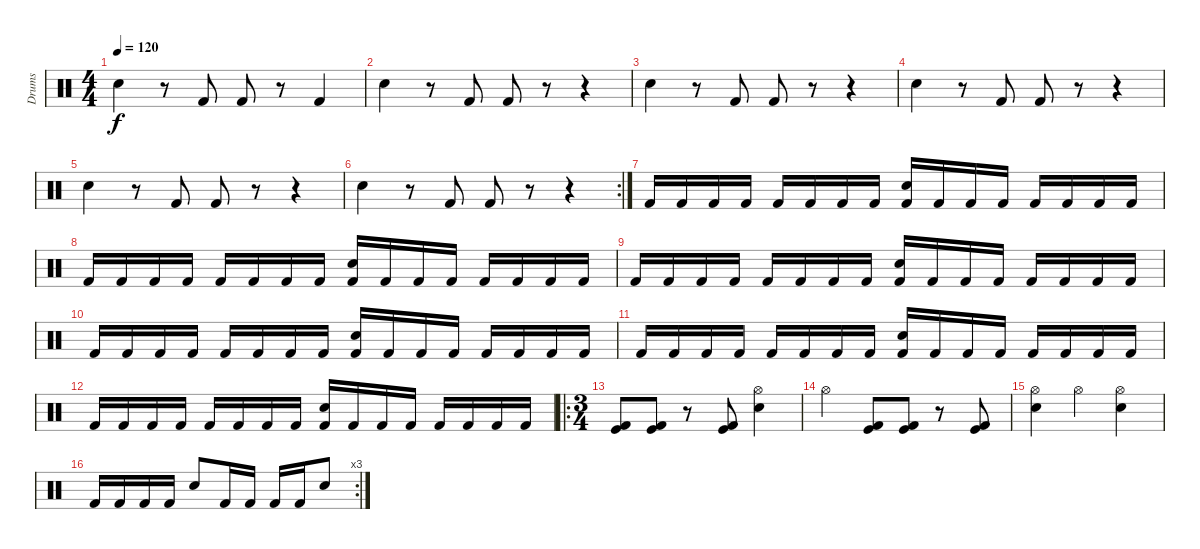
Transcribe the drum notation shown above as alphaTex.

\track ("Drums" "Drums") {instrument percussion}
\staff {score}
\articulation defaults
\ts (4 4)
\tempo 120
\clef neutral
\ks c "Electric Snare (hit)".4{dy f}
r.8 "Kick (hit) 2".8 "Kick (hit) 2".8 r.8 "Kick (hit) 2".4 |
"Electric Snare (hit)".4 r.8 "Kick (hit) 2".8 "Kick (hit) 2".8 r.8 r.4 |
"Electric Snare (hit)".4 r.8 "Kick (hit) 2".8 "Kick (hit) 2".8 r.8 r.4 |
"Electric Snare (hit)".4 r.8 "Kick (hit) 2".8 "Kick (hit) 2".8 r.8 r.4 |
"Electric Snare (hit)".4 r.8 "Kick (hit) 2".8 "Kick (hit) 2".8 r.8 r.4 |
\rc 2 "Electric Snare (hit)".4
r.8 "Kick (hit) 2".8 "Kick (hit) 2".8 r.8 r.4 |
"Kick (hit) 2".16 "Kick (hit) 2".16 "Kick (hit) 2".16 "Kick (hit) 2".16 "Kick (hit) 2".16 "Kick (hit) 2".16 "Kick (hit) 2".16 "Kick (hit) 2".16 ("Electric Snare (hit)" "Kick (hit) 2").16 "Kick (hit) 2".16 "Kick (hit) 2".16 "Kick (hit) 2".16 "Kick (hit) 2".16 "Kick (hit) 2".16 "Kick (hit) 2".16 "Kick (hit) 2".16 |
"Kick (hit) 2".16 "Kick (hit) 2".16 "Kick (hit) 2".16 "Kick (hit) 2".16 "Kick (hit) 2".16 "Kick (hit) 2".16 "Kick (hit) 2".16 "Kick (hit) 2".16 ("Electric Snare (hit)" "Kick (hit) 2").16 "Kick (hit) 2".16 "Kick (hit) 2".16 "Kick (hit) 2".16 "Kick (hit) 2".16 "Kick (hit) 2".16 "Kick (hit) 2".16 "Kick (hit) 2".16 |
"Kick (hit) 2".16 "Kick (hit) 2".16 "Kick (hit) 2".16 "Kick (hit) 2".16 "Kick (hit) 2".16 "Kick (hit) 2".16 "Kick (hit) 2".16 "Kick (hit) 2".16 ("Electric Snare (hit)" "Kick (hit) 2").16 "Kick (hit) 2".16 "Kick (hit) 2".16 "Kick (hit) 2".16 "Kick (hit) 2".16 "Kick (hit) 2".16 "Kick (hit) 2".16 "Kick (hit) 2".16 |
"Kick (hit) 2".16 "Kick (hit) 2".16 "Kick (hit) 2".16 "Kick (hit) 2".16 "Kick (hit) 2".16 "Kick (hit) 2".16 "Kick (hit) 2".16 "Kick (hit) 2".16 ("Electric Snare (hit)" "Kick (hit) 2").16 "Kick (hit) 2".16 "Kick (hit) 2".16 "Kick (hit) 2".16 "Kick (hit) 2".16 "Kick (hit) 2".16 "Kick (hit) 2".16 "Kick (hit) 2".16 |
"Kick (hit) 2".16 "Kick (hit) 2".16 "Kick (hit) 2".16 "Kick (hit) 2".16 "Kick (hit) 2".16 "Kick (hit) 2".16 "Kick (hit) 2".16 "Kick (hit) 2".16 ("Electric Snare (hit)" "Kick (hit) 2").16 "Kick (hit) 2".16 "Kick (hit) 2".16 "Kick (hit) 2".16 "Kick (hit) 2".16 "Kick (hit) 2".16 "Kick (hit) 2".16 "Kick (hit) 2".16 |
"Kick (hit) 2".16 "Kick (hit) 2".16 "Kick (hit) 2".16 "Kick (hit) 2".16 "Kick (hit) 2".16 "Kick (hit) 2".16 "Kick (hit) 2".16 "Kick (hit) 2".16 ("Electric Snare (hit)" "Kick (hit) 2").16 "Kick (hit) 2".16 "Kick (hit) 2".16 "Kick (hit) 2".16 "Kick (hit) 2".16 "Kick (hit) 2".16 "Kick (hit) 2".16 "Kick (hit) 2".16 |
\ro
\ts (3 4)
("Kick (hit)" "Kick (hit) 2").8 ("Kick (hit)" "Kick (hit) 2").8 r.8 ("Kick (hit)" "Kick (hit) 2").8 ("Hi-Hat (open)" "Electric Snare (hit)").4 |
"Hi-Hat (open)".4 ("Kick (hit)" "Kick (hit) 2").8 ("Kick (hit)" "Kick (hit) 2").8 r.8 ("Kick (hit)" "Kick (hit) 2").8 |
("Hi-Hat (open)" "Electric Snare (hit)").4 "Hi-Hat (open)".4 ("Hi-Hat (open)" "Electric Snare (hit)").4 |
\rc 3 "Kick (hit) 2".16 "Kick (hit) 2".16 "Kick (hit) 2".16 "Kick (hit) 2".16 "Electric Snare (hit)".8 "Kick (hit) 2".16 "Kick (hit) 2".16 "Kick (hit) 2".16 "Kick (hit) 2".16 "Electric Snare (hit)".8
